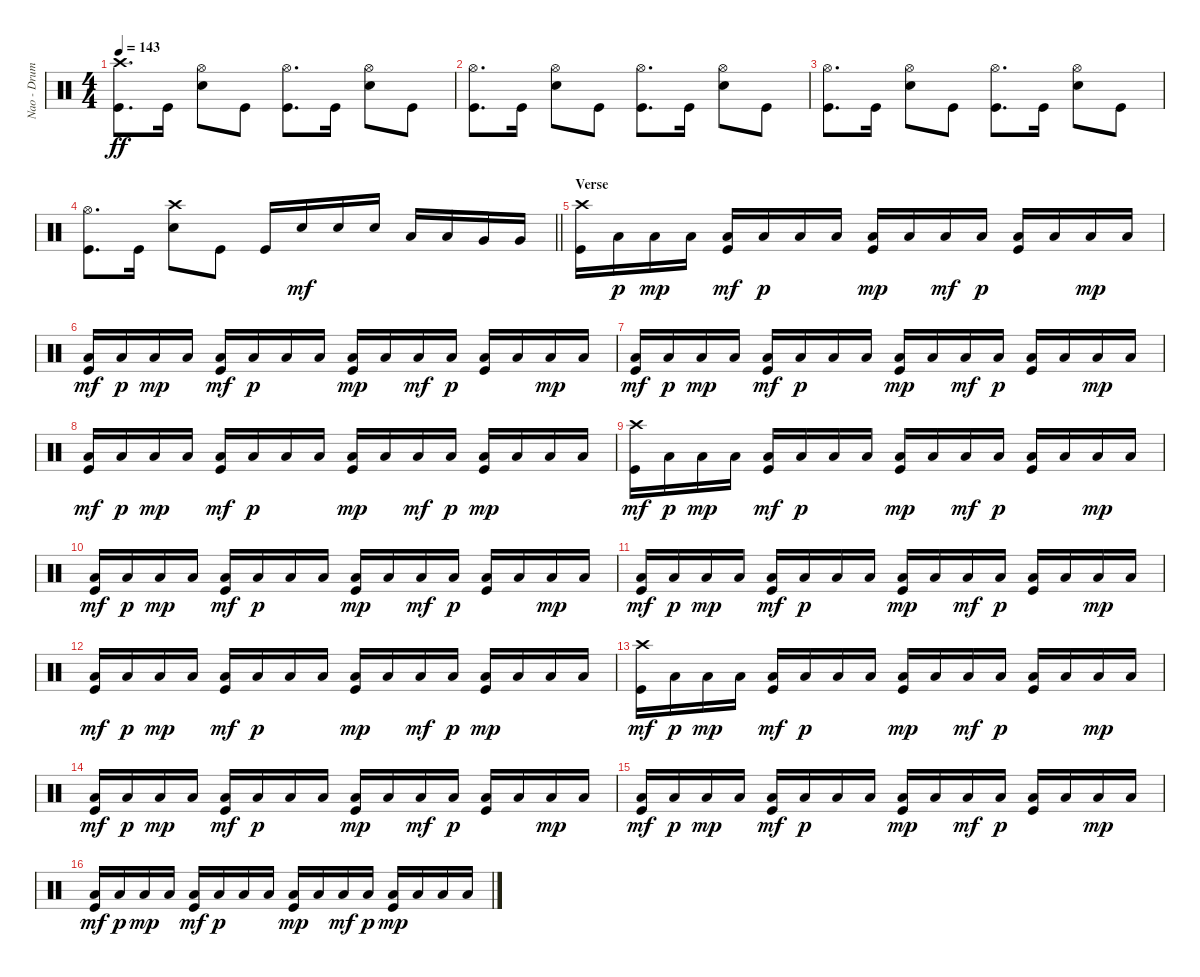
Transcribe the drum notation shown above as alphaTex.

\track ("Nao - Drums" "Nao - Drum") {instrument percussion}
\staff {score}
\articulation defaults
\ts (4 4)
\tempo 143
\clef neutral
\ks c
("Kick (hit)" "Crash high (hit)").8{d dy ff} "Kick (hit)".16 ("Hi-Hat (open)" "Snare (hit) 2").8 "Kick (hit)".8 ("Kick (hit)" "Hi-Hat (open)").8{d} "Kick (hit)".16 ("Hi-Hat (open)" "Snare (hit) 2").8 "Kick (hit)".8 |
("Kick (hit)" "Hi-Hat (open)").8{d} "Kick (hit)".16 ("Hi-Hat (open)" "Snare (hit) 2").8 "Kick (hit)".8 ("Kick (hit)" "Hi-Hat (open)").8{d} "Kick (hit)".16 ("Hi-Hat (open)" "Snare (hit) 2").8 "Kick (hit)".8 |
("Kick (hit)" "Hi-Hat (open)").8{d} "Kick (hit)".16 ("Hi-Hat (open)" "Snare (hit) 2").8 "Kick (hit)".8 ("Kick (hit)" "Hi-Hat (open)").8{d} "Kick (hit)".16 ("Hi-Hat (open)" "Snare (hit) 2").8 "Kick (hit)".8 |
\barLineRight lightlight
("Kick (hit)" "Hi-Hat (open)").8{d} "Kick (hit)".16 ("Snare (hit) 2" "Crash high (hit)").8 "Kick (hit)".8 "Kick (hit)".16 "Snare (hit) 2".16{dy mf} "Snare (hit) 2".16 "Snare (hit) 2".16 "Low Tom (hit)".16 "Low Tom (hit)".16 "Very Low Tom (hit)".16 "Very Low Tom (hit)".16 |
\section ("" "Verse")
("Kick (hit)" "Crash high (hit)").16 "Low Floor Tom (hit)".16{dy p} "Low Floor Tom (hit)".16{dy mp} "Low Floor Tom (hit)".16 ("Low Floor Tom (hit)" "Kick (hit)").16{dy mf} "Low Floor Tom (hit)".16{dy p} "Low Floor Tom (hit)".16 "Low Floor Tom (hit)".16 ("Low Floor Tom (hit)" "Kick (hit)").16{dy mp} "Low Floor Tom (hit)".16 "Low Floor Tom (hit)".16{dy mf} "Low Floor Tom (hit)".16{dy p} ("Kick (hit)" "Low Floor Tom (hit)").16 "Low Floor Tom (hit)".16 "Low Floor Tom (hit)".16{dy mp} "Low Floor Tom (hit)".16 |
("Low Floor Tom (hit)" "Kick (hit)").16{dy mf} "Low Floor Tom (hit)".16{dy p} "Low Floor Tom (hit)".16{dy mp} "Low Floor Tom (hit)".16 ("Low Floor Tom (hit)" "Kick (hit)").16{dy mf} "Low Floor Tom (hit)".16{dy p} "Low Floor Tom (hit)".16 "Low Floor Tom (hit)".16 ("Low Floor Tom (hit)" "Kick (hit)").16{dy mp} "Low Floor Tom (hit)".16 "Low Floor Tom (hit)".16{dy mf} "Low Floor Tom (hit)".16{dy p} ("Kick (hit)" "Low Floor Tom (hit)").16 "Low Floor Tom (hit)".16 "Low Floor Tom (hit)".16{dy mp} "Low Floor Tom (hit)".16 |
("Low Floor Tom (hit)" "Kick (hit)").16{dy mf} "Low Floor Tom (hit)".16{dy p} "Low Floor Tom (hit)".16{dy mp} "Low Floor Tom (hit)".16 ("Low Floor Tom (hit)" "Kick (hit)").16{dy mf} "Low Floor Tom (hit)".16{dy p} "Low Floor Tom (hit)".16 "Low Floor Tom (hit)".16 ("Low Floor Tom (hit)" "Kick (hit)").16{dy mp} "Low Floor Tom (hit)".16 "Low Floor Tom (hit)".16{dy mf} "Low Floor Tom (hit)".16{dy p} ("Kick (hit)" "Low Floor Tom (hit)").16 "Low Floor Tom (hit)".16 "Low Floor Tom (hit)".16{dy mp} "Low Floor Tom (hit)".16 |
("Low Floor Tom (hit)" "Kick (hit)").16{dy mf} "Low Floor Tom (hit)".16{dy p} "Low Floor Tom (hit)".16{dy mp} "Low Floor Tom (hit)".16 ("Low Floor Tom (hit)" "Kick (hit)").16{dy mf} "Low Floor Tom (hit)".16{dy p} "Low Floor Tom (hit)".16 "Low Floor Tom (hit)".16 ("Low Floor Tom (hit)" "Kick (hit)").16{dy mp} "Low Floor Tom (hit)".16 "Low Floor Tom (hit)".16{dy mf} "Low Floor Tom (hit)".16{dy p} ("Kick (hit)" "Low Floor Tom (hit)").16{dy mp} "Low Floor Tom (hit)".16 "Low Floor Tom (hit)".16 "Low Floor Tom (hit)".16 |
("Kick (hit)" "Crash high (hit)").16{dy mf} "Low Floor Tom (hit)".16{dy p} "Low Floor Tom (hit)".16{dy mp} "Low Floor Tom (hit)".16 ("Low Floor Tom (hit)" "Kick (hit)").16{dy mf} "Low Floor Tom (hit)".16{dy p} "Low Floor Tom (hit)".16 "Low Floor Tom (hit)".16 ("Low Floor Tom (hit)" "Kick (hit)").16{dy mp} "Low Floor Tom (hit)".16 "Low Floor Tom (hit)".16{dy mf} "Low Floor Tom (hit)".16{dy p} ("Kick (hit)" "Low Floor Tom (hit)").16 "Low Floor Tom (hit)".16 "Low Floor Tom (hit)".16{dy mp} "Low Floor Tom (hit)".16 |
("Low Floor Tom (hit)" "Kick (hit)").16{dy mf} "Low Floor Tom (hit)".16{dy p} "Low Floor Tom (hit)".16{dy mp} "Low Floor Tom (hit)".16 ("Low Floor Tom (hit)" "Kick (hit)").16{dy mf} "Low Floor Tom (hit)".16{dy p} "Low Floor Tom (hit)".16 "Low Floor Tom (hit)".16 ("Low Floor Tom (hit)" "Kick (hit)").16{dy mp} "Low Floor Tom (hit)".16 "Low Floor Tom (hit)".16{dy mf} "Low Floor Tom (hit)".16{dy p} ("Kick (hit)" "Low Floor Tom (hit)").16 "Low Floor Tom (hit)".16 "Low Floor Tom (hit)".16{dy mp} "Low Floor Tom (hit)".16 |
("Low Floor Tom (hit)" "Kick (hit)").16{dy mf} "Low Floor Tom (hit)".16{dy p} "Low Floor Tom (hit)".16{dy mp} "Low Floor Tom (hit)".16 ("Low Floor Tom (hit)" "Kick (hit)").16{dy mf} "Low Floor Tom (hit)".16{dy p} "Low Floor Tom (hit)".16 "Low Floor Tom (hit)".16 ("Low Floor Tom (hit)" "Kick (hit)").16{dy mp} "Low Floor Tom (hit)".16 "Low Floor Tom (hit)".16{dy mf} "Low Floor Tom (hit)".16{dy p} ("Kick (hit)" "Low Floor Tom (hit)").16 "Low Floor Tom (hit)".16 "Low Floor Tom (hit)".16{dy mp} "Low Floor Tom (hit)".16 |
("Low Floor Tom (hit)" "Kick (hit)").16{dy mf} "Low Floor Tom (hit)".16{dy p} "Low Floor Tom (hit)".16{dy mp} "Low Floor Tom (hit)".16 ("Low Floor Tom (hit)" "Kick (hit)").16{dy mf} "Low Floor Tom (hit)".16{dy p} "Low Floor Tom (hit)".16 "Low Floor Tom (hit)".16 ("Low Floor Tom (hit)" "Kick (hit)").16{dy mp} "Low Floor Tom (hit)".16 "Low Floor Tom (hit)".16{dy mf} "Low Floor Tom (hit)".16{dy p} ("Kick (hit)" "Low Floor Tom (hit)").16{dy mp} "Low Floor Tom (hit)".16 "Low Floor Tom (hit)".16 "Low Floor Tom (hit)".16 |
("Kick (hit)" "Crash high (hit)").16{dy mf} "Low Floor Tom (hit)".16{dy p} "Low Floor Tom (hit)".16{dy mp} "Low Floor Tom (hit)".16 ("Low Floor Tom (hit)" "Kick (hit)").16{dy mf} "Low Floor Tom (hit)".16{dy p} "Low Floor Tom (hit)".16 "Low Floor Tom (hit)".16 ("Low Floor Tom (hit)" "Kick (hit)").16{dy mp} "Low Floor Tom (hit)".16 "Low Floor Tom (hit)".16{dy mf} "Low Floor Tom (hit)".16{dy p} ("Kick (hit)" "Low Floor Tom (hit)").16 "Low Floor Tom (hit)".16 "Low Floor Tom (hit)".16{dy mp} "Low Floor Tom (hit)".16 |
("Low Floor Tom (hit)" "Kick (hit)").16{dy mf} "Low Floor Tom (hit)".16{dy p} "Low Floor Tom (hit)".16{dy mp} "Low Floor Tom (hit)".16 ("Low Floor Tom (hit)" "Kick (hit)").16{dy mf} "Low Floor Tom (hit)".16{dy p} "Low Floor Tom (hit)".16 "Low Floor Tom (hit)".16 ("Low Floor Tom (hit)" "Kick (hit)").16{dy mp} "Low Floor Tom (hit)".16 "Low Floor Tom (hit)".16{dy mf} "Low Floor Tom (hit)".16{dy p} ("Kick (hit)" "Low Floor Tom (hit)").16 "Low Floor Tom (hit)".16 "Low Floor Tom (hit)".16{dy mp} "Low Floor Tom (hit)".16 |
("Low Floor Tom (hit)" "Kick (hit)").16{dy mf} "Low Floor Tom (hit)".16{dy p} "Low Floor Tom (hit)".16{dy mp} "Low Floor Tom (hit)".16 ("Low Floor Tom (hit)" "Kick (hit)").16{dy mf} "Low Floor Tom (hit)".16{dy p} "Low Floor Tom (hit)".16 "Low Floor Tom (hit)".16 ("Low Floor Tom (hit)" "Kick (hit)").16{dy mp} "Low Floor Tom (hit)".16 "Low Floor Tom (hit)".16{dy mf} "Low Floor Tom (hit)".16{dy p} ("Kick (hit)" "Low Floor Tom (hit)").16 "Low Floor Tom (hit)".16 "Low Floor Tom (hit)".16{dy mp} "Low Floor Tom (hit)".16 |
("Low Floor Tom (hit)" "Kick (hit)").16{dy mf} "Low Floor Tom (hit)".16{dy p} "Low Floor Tom (hit)".16{dy mp} "Low Floor Tom (hit)".16 ("Low Floor Tom (hit)" "Kick (hit)").16{dy mf} "Low Floor Tom (hit)".16{dy p} "Low Floor Tom (hit)".16 "Low Floor Tom (hit)".16 ("Low Floor Tom (hit)" "Kick (hit)").16{dy mp} "Low Floor Tom (hit)".16 "Low Floor Tom (hit)".16{dy mf} "Low Floor Tom (hit)".16{dy p} ("Kick (hit)" "Low Floor Tom (hit)").16{dy mp} "Low Floor Tom (hit)".16 "Low Floor Tom (hit)".16 "Low Floor Tom (hit)".16
